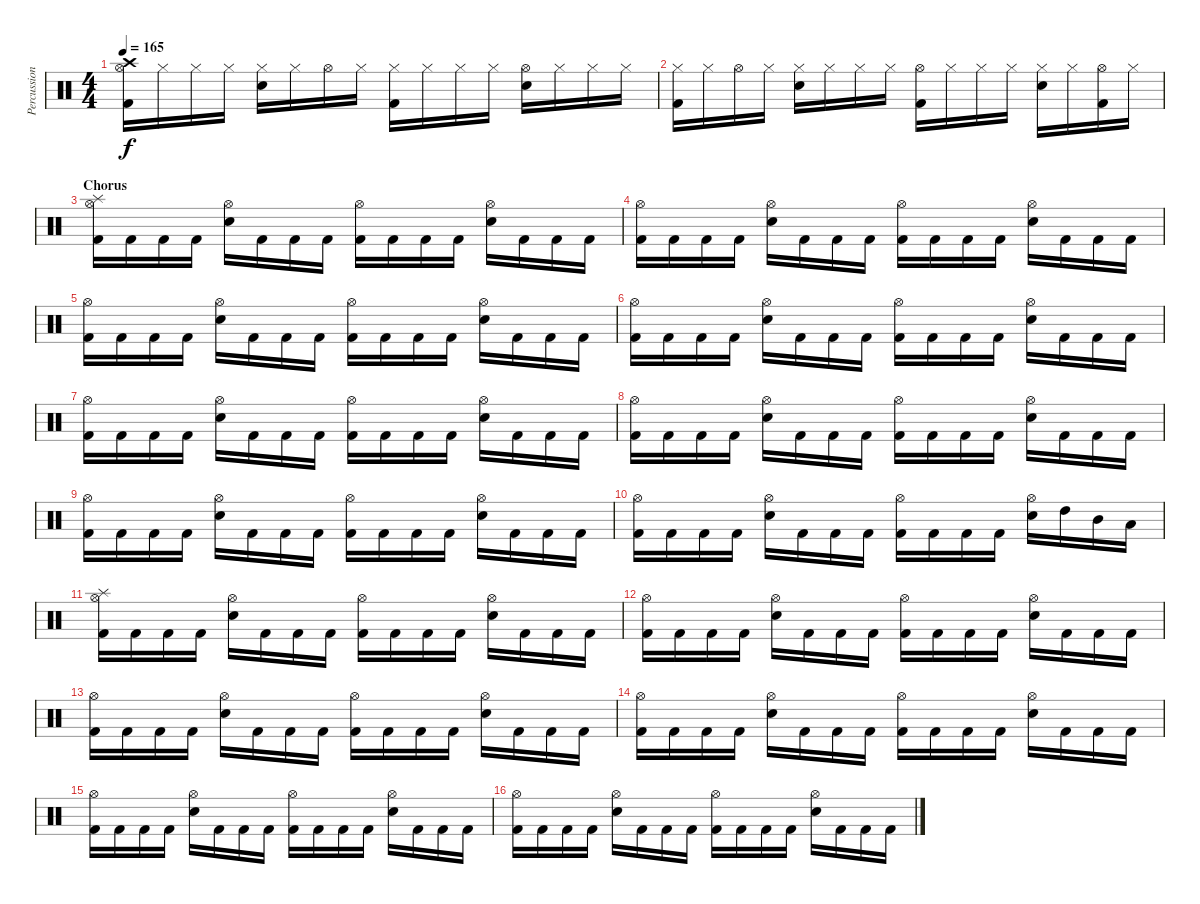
\track ("Percussions" "Percussion") {instrument percussion}
\staff {score}
\articulation defaults
\ts (4 4)
\tempo 165
\clef neutral
\ks c
("Hi-Hat (open)" "Crash high (hit)" "Kick (hit) 2").16{dy f} "Hi-Hat (closed)".16 "Hi-Hat (closed)".16 "Hi-Hat (closed)".16 ("Hi-Hat (closed)" "Electric Snare (hit)").16 "Hi-Hat (closed)".16 "Hi-Hat (open)".16 "Hi-Hat (closed)".16 ("Hi-Hat (closed)" "Kick (hit) 2").16 "Hi-Hat (closed)".16 "Hi-Hat (closed)".16 "Hi-Hat (closed)".16 ("Hi-Hat (open)" "Electric Snare (hit)").16 "Hi-Hat (closed)".16 "Hi-Hat (closed)".16 "Hi-Hat (closed)".16 |
("Hi-Hat (closed)" "Kick (hit) 2").16 "Hi-Hat (closed)".16 "Hi-Hat (open)".16 "Hi-Hat (closed)".16 ("Hi-Hat (closed)" "Electric Snare (hit)").16 "Hi-Hat (closed)".16 "Hi-Hat (closed)".16 "Hi-Hat (closed)".16 ("Hi-Hat (open)" "Kick (hit) 2").16 "Hi-Hat (closed)".16 "Hi-Hat (closed)".16 "Hi-Hat (closed)".16 ("Hi-Hat (closed)" "Electric Snare (hit)").16 "Hi-Hat (closed)".16 ("Hi-Hat (open)" "Kick (hit) 2").16 "Hi-Hat (closed)".16 |
\section ("" "Chorus")
("Splash (hit)" "Hi-Hat (open)" "Kick (hit) 2").16 "Kick (hit) 2".16 "Kick (hit) 2".16 "Kick (hit) 2".16 ("Hi-Hat (open)" "Electric Snare (hit)").16 "Kick (hit) 2".16 "Kick (hit) 2".16 "Kick (hit) 2".16 ("Hi-Hat (open)" "Kick (hit) 2").16 "Kick (hit) 2".16 "Kick (hit) 2".16 "Kick (hit) 2".16 ("Hi-Hat (open)" "Electric Snare (hit)").16 "Kick (hit) 2".16 "Kick (hit) 2".16 "Kick (hit) 2".16 |
("Hi-Hat (open)" "Kick (hit) 2").16 "Kick (hit) 2".16 "Kick (hit) 2".16 "Kick (hit) 2".16 ("Hi-Hat (open)" "Electric Snare (hit)").16 "Kick (hit) 2".16 "Kick (hit) 2".16 "Kick (hit) 2".16 ("Hi-Hat (open)" "Kick (hit) 2").16 "Kick (hit) 2".16 "Kick (hit) 2".16 "Kick (hit) 2".16 ("Hi-Hat (open)" "Electric Snare (hit)").16 "Kick (hit) 2".16 "Kick (hit) 2".16 "Kick (hit) 2".16 |
("Hi-Hat (open)" "Kick (hit) 2").16 "Kick (hit) 2".16 "Kick (hit) 2".16 "Kick (hit) 2".16 ("Hi-Hat (open)" "Electric Snare (hit)").16 "Kick (hit) 2".16 "Kick (hit) 2".16 "Kick (hit) 2".16 ("Hi-Hat (open)" "Kick (hit) 2").16 "Kick (hit) 2".16 "Kick (hit) 2".16 "Kick (hit) 2".16 ("Hi-Hat (open)" "Electric Snare (hit)").16 "Kick (hit) 2".16 "Kick (hit) 2".16 "Kick (hit) 2".16 |
("Hi-Hat (open)" "Kick (hit) 2").16 "Kick (hit) 2".16 "Kick (hit) 2".16 "Kick (hit) 2".16 ("Hi-Hat (open)" "Electric Snare (hit)").16 "Kick (hit) 2".16 "Kick (hit) 2".16 "Kick (hit) 2".16 ("Hi-Hat (open)" "Kick (hit) 2").16 "Kick (hit) 2".16 "Kick (hit) 2".16 "Kick (hit) 2".16 ("Hi-Hat (open)" "Electric Snare (hit)").16 "Kick (hit) 2".16 "Kick (hit) 2".16 "Kick (hit) 2".16 |
("Hi-Hat (open)" "Kick (hit) 2").16 "Kick (hit) 2".16 "Kick (hit) 2".16 "Kick (hit) 2".16 ("Hi-Hat (open)" "Electric Snare (hit)").16 "Kick (hit) 2".16 "Kick (hit) 2".16 "Kick (hit) 2".16 ("Hi-Hat (open)" "Kick (hit) 2").16 "Kick (hit) 2".16 "Kick (hit) 2".16 "Kick (hit) 2".16 ("Hi-Hat (open)" "Electric Snare (hit)").16 "Kick (hit) 2".16 "Kick (hit) 2".16 "Kick (hit) 2".16 |
("Hi-Hat (open)" "Kick (hit) 2").16 "Kick (hit) 2".16 "Kick (hit) 2".16 "Kick (hit) 2".16 ("Hi-Hat (open)" "Electric Snare (hit)").16 "Kick (hit) 2".16 "Kick (hit) 2".16 "Kick (hit) 2".16 ("Hi-Hat (open)" "Kick (hit) 2").16 "Kick (hit) 2".16 "Kick (hit) 2".16 "Kick (hit) 2".16 ("Hi-Hat (open)" "Electric Snare (hit)").16 "Kick (hit) 2".16 "Kick (hit) 2".16 "Kick (hit) 2".16 |
("Hi-Hat (open)" "Kick (hit) 2").16 "Kick (hit) 2".16 "Kick (hit) 2".16 "Kick (hit) 2".16 ("Hi-Hat (open)" "Electric Snare (hit)").16 "Kick (hit) 2".16 "Kick (hit) 2".16 "Kick (hit) 2".16 ("Hi-Hat (open)" "Kick (hit) 2").16 "Kick (hit) 2".16 "Kick (hit) 2".16 "Kick (hit) 2".16 ("Hi-Hat (open)" "Electric Snare (hit)").16 "Kick (hit) 2".16 "Kick (hit) 2".16 "Kick (hit) 2".16 |
("Hi-Hat (open)" "Kick (hit) 2").16 "Kick (hit) 2".16 "Kick (hit) 2".16 "Kick (hit) 2".16 ("Hi-Hat (open)" "Electric Snare (hit)").16 "Kick (hit) 2".16 "Kick (hit) 2".16 "Kick (hit) 2".16 ("Hi-Hat (open)" "Kick (hit) 2").16 "Kick (hit) 2".16 "Kick (hit) 2".16 "Kick (hit) 2".16 ("Hi-Hat (open)" "Electric Snare (hit)").16 "High Tom (hit)".16 "Mid Tom (hit)".16 "Low Tom (hit)".16 |
("Splash (hit)" "Hi-Hat (open)" "Kick (hit) 2").16 "Kick (hit) 2".16 "Kick (hit) 2".16 "Kick (hit) 2".16 ("Hi-Hat (open)" "Electric Snare (hit)").16 "Kick (hit) 2".16 "Kick (hit) 2".16 "Kick (hit) 2".16 ("Hi-Hat (open)" "Kick (hit) 2").16 "Kick (hit) 2".16 "Kick (hit) 2".16 "Kick (hit) 2".16 ("Hi-Hat (open)" "Electric Snare (hit)").16 "Kick (hit) 2".16 "Kick (hit) 2".16 "Kick (hit) 2".16 |
("Hi-Hat (open)" "Kick (hit) 2").16 "Kick (hit) 2".16 "Kick (hit) 2".16 "Kick (hit) 2".16 ("Hi-Hat (open)" "Electric Snare (hit)").16 "Kick (hit) 2".16 "Kick (hit) 2".16 "Kick (hit) 2".16 ("Hi-Hat (open)" "Kick (hit) 2").16 "Kick (hit) 2".16 "Kick (hit) 2".16 "Kick (hit) 2".16 ("Hi-Hat (open)" "Electric Snare (hit)").16 "Kick (hit) 2".16 "Kick (hit) 2".16 "Kick (hit) 2".16 |
("Hi-Hat (open)" "Kick (hit) 2").16 "Kick (hit) 2".16 "Kick (hit) 2".16 "Kick (hit) 2".16 ("Hi-Hat (open)" "Electric Snare (hit)").16 "Kick (hit) 2".16 "Kick (hit) 2".16 "Kick (hit) 2".16 ("Hi-Hat (open)" "Kick (hit) 2").16 "Kick (hit) 2".16 "Kick (hit) 2".16 "Kick (hit) 2".16 ("Hi-Hat (open)" "Electric Snare (hit)").16 "Kick (hit) 2".16 "Kick (hit) 2".16 "Kick (hit) 2".16 |
("Hi-Hat (open)" "Kick (hit) 2").16 "Kick (hit) 2".16 "Kick (hit) 2".16 "Kick (hit) 2".16 ("Hi-Hat (open)" "Electric Snare (hit)").16 "Kick (hit) 2".16 "Kick (hit) 2".16 "Kick (hit) 2".16 ("Hi-Hat (open)" "Kick (hit) 2").16 "Kick (hit) 2".16 "Kick (hit) 2".16 "Kick (hit) 2".16 ("Hi-Hat (open)" "Electric Snare (hit)").16 "Kick (hit) 2".16 "Kick (hit) 2".16 "Kick (hit) 2".16 |
("Hi-Hat (open)" "Kick (hit) 2").16 "Kick (hit) 2".16 "Kick (hit) 2".16 "Kick (hit) 2".16 ("Hi-Hat (open)" "Electric Snare (hit)").16 "Kick (hit) 2".16 "Kick (hit) 2".16 "Kick (hit) 2".16 ("Hi-Hat (open)" "Kick (hit) 2").16 "Kick (hit) 2".16 "Kick (hit) 2".16 "Kick (hit) 2".16 ("Hi-Hat (open)" "Electric Snare (hit)").16 "Kick (hit) 2".16 "Kick (hit) 2".16 "Kick (hit) 2".16 |
("Hi-Hat (open)" "Kick (hit) 2").16 "Kick (hit) 2".16 "Kick (hit) 2".16 "Kick (hit) 2".16 ("Hi-Hat (open)" "Electric Snare (hit)").16 "Kick (hit) 2".16 "Kick (hit) 2".16 "Kick (hit) 2".16 ("Hi-Hat (open)" "Kick (hit) 2").16 "Kick (hit) 2".16 "Kick (hit) 2".16 "Kick (hit) 2".16 ("Hi-Hat (open)" "Electric Snare (hit)").16 "Kick (hit) 2".16 "Kick (hit) 2".16 "Kick (hit) 2".16
